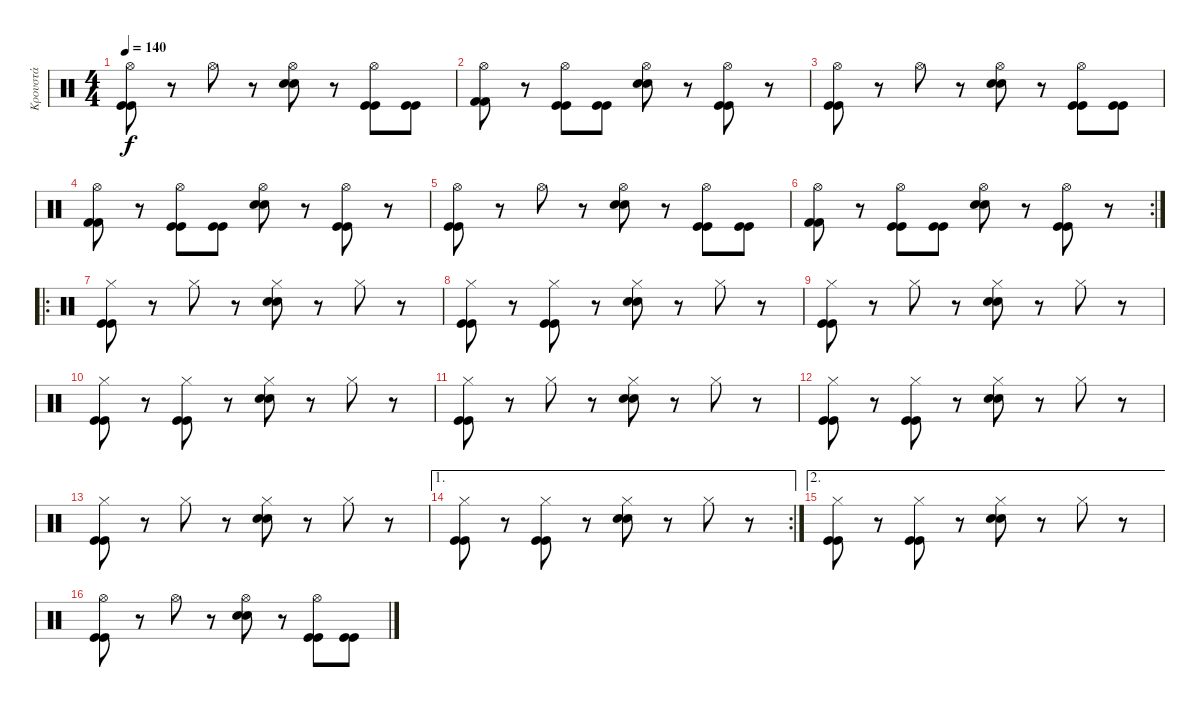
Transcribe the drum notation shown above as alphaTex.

\track ("Κρουστά" "Κρουστά") {instrument percussion}
\staff {score}
\articulation defaults
\ts (4 4)
\tempo 140
\clef neutral
\ks c
("Hi-Hat (open)" "Kick (hit)" "Kick (hit)").8{dy f} r.8 "Hi-Hat (open)".8 r.8 ("Hi-Hat (open)" "Electric Snare (hit)" "Electric Snare (hit)").8 r.8 ("Hi-Hat (open)" "Kick (hit)" "Kick (hit)").8 ("Kick (hit)" "Kick (hit)").8 |
("Hi-Hat (open)" "Kick (hit) 2" "Kick (hit) 2").8 r.8 ("Hi-Hat (open)" "Kick (hit)" "Kick (hit)").8 ("Kick (hit)" "Kick (hit)").8 ("Hi-Hat (open)" "Electric Snare (hit)" "Electric Snare (hit)").8 r.8 ("Hi-Hat (open)" "Kick (hit)" "Kick (hit)").8 r.8 |
("Hi-Hat (open)" "Kick (hit)" "Kick (hit)").8 r.8 "Hi-Hat (open)".8 r.8 ("Hi-Hat (open)" "Electric Snare (hit)" "Electric Snare (hit)").8 r.8 ("Hi-Hat (open)" "Kick (hit)" "Kick (hit)").8 ("Kick (hit)" "Kick (hit)").8 |
("Hi-Hat (open)" "Kick (hit) 2" "Kick (hit) 2").8 r.8 ("Hi-Hat (open)" "Kick (hit)" "Kick (hit)").8 ("Kick (hit)" "Kick (hit)").8 ("Hi-Hat (open)" "Electric Snare (hit)" "Electric Snare (hit)").8 r.8 ("Hi-Hat (open)" "Kick (hit)" "Kick (hit)").8 r.8 |
("Hi-Hat (open)" "Kick (hit)" "Kick (hit)").8 r.8 "Hi-Hat (open)".8 r.8 ("Hi-Hat (open)" "Electric Snare (hit)" "Electric Snare (hit)").8 r.8 ("Hi-Hat (open)" "Kick (hit)" "Kick (hit)").8 ("Kick (hit)" "Kick (hit)").8 |
\rc 2
("Hi-Hat (open)" "Kick (hit) 2" "Kick (hit) 2").8 r.8 ("Hi-Hat (open)" "Kick (hit)" "Kick (hit)").8 ("Kick (hit)" "Kick (hit)").8 ("Hi-Hat (open)" "Electric Snare (hit)" "Electric Snare (hit)").8 r.8 ("Hi-Hat (open)" "Kick (hit)" "Kick (hit)").8 r.8 |
\ro
("Hi-Hat (closed)" "Kick (hit)" "Kick (hit)").8 r.8 "Hi-Hat (closed)".8 r.8 ("Hi-Hat (closed)" "Electric Snare (hit)" "Electric Snare (hit)").8 r.8 "Hi-Hat (closed)".8 r.8 |
("Hi-Hat (closed)" "Kick (hit)" "Kick (hit)").8 r.8 ("Hi-Hat (closed)" "Kick (hit)" "Kick (hit)").8 r.8 ("Hi-Hat (closed)" "Electric Snare (hit)" "Electric Snare (hit)").8 r.8 "Hi-Hat (closed)".8 r.8 |
("Hi-Hat (closed)" "Kick (hit)" "Kick (hit)").8 r.8 "Hi-Hat (closed)".8 r.8 ("Hi-Hat (closed)" "Electric Snare (hit)" "Electric Snare (hit)").8 r.8 "Hi-Hat (closed)".8 r.8 |
("Hi-Hat (closed)" "Kick (hit)" "Kick (hit)").8 r.8 ("Hi-Hat (closed)" "Kick (hit)" "Kick (hit)").8 r.8 ("Hi-Hat (closed)" "Electric Snare (hit)" "Electric Snare (hit)").8 r.8 "Hi-Hat (closed)".8 r.8 |
("Hi-Hat (closed)" "Kick (hit)" "Kick (hit)").8 r.8 "Hi-Hat (closed)".8 r.8 ("Hi-Hat (closed)" "Electric Snare (hit)" "Electric Snare (hit)").8 r.8 "Hi-Hat (closed)".8 r.8 |
("Hi-Hat (closed)" "Kick (hit)" "Kick (hit)").8 r.8 ("Hi-Hat (closed)" "Kick (hit)" "Kick (hit)").8 r.8 ("Hi-Hat (closed)" "Electric Snare (hit)" "Electric Snare (hit)").8 r.8 "Hi-Hat (closed)".8 r.8 |
("Hi-Hat (closed)" "Kick (hit)" "Kick (hit)").8 r.8 "Hi-Hat (closed)".8 r.8 ("Hi-Hat (closed)" "Electric Snare (hit)" "Electric Snare (hit)").8 r.8 "Hi-Hat (closed)".8 r.8 |
\ae 1
\rc 2
("Hi-Hat (closed)" "Kick (hit)" "Kick (hit)").8 r.8 ("Hi-Hat (closed)" "Kick (hit)" "Kick (hit)").8 r.8 ("Hi-Hat (closed)" "Electric Snare (hit)" "Electric Snare (hit)").8 r.8 "Hi-Hat (closed)".8 r.8 |
\ae 2
("Hi-Hat (closed)" "Kick (hit)" "Kick (hit)").8 r.8 ("Hi-Hat (closed)" "Kick (hit)" "Kick (hit)").8 r.8 ("Hi-Hat (closed)" "Electric Snare (hit)" "Electric Snare (hit)").8 r.8 "Hi-Hat (closed)".8 r.8 |
("Hi-Hat (open)" "Kick (hit)" "Kick (hit)").8 r.8 "Hi-Hat (open)".8 r.8 ("Hi-Hat (open)" "Electric Snare (hit)" "Electric Snare (hit)").8 r.8 ("Hi-Hat (open)" "Kick (hit)" "Kick (hit)").8 ("Kick (hit)" "Kick (hit)").8
